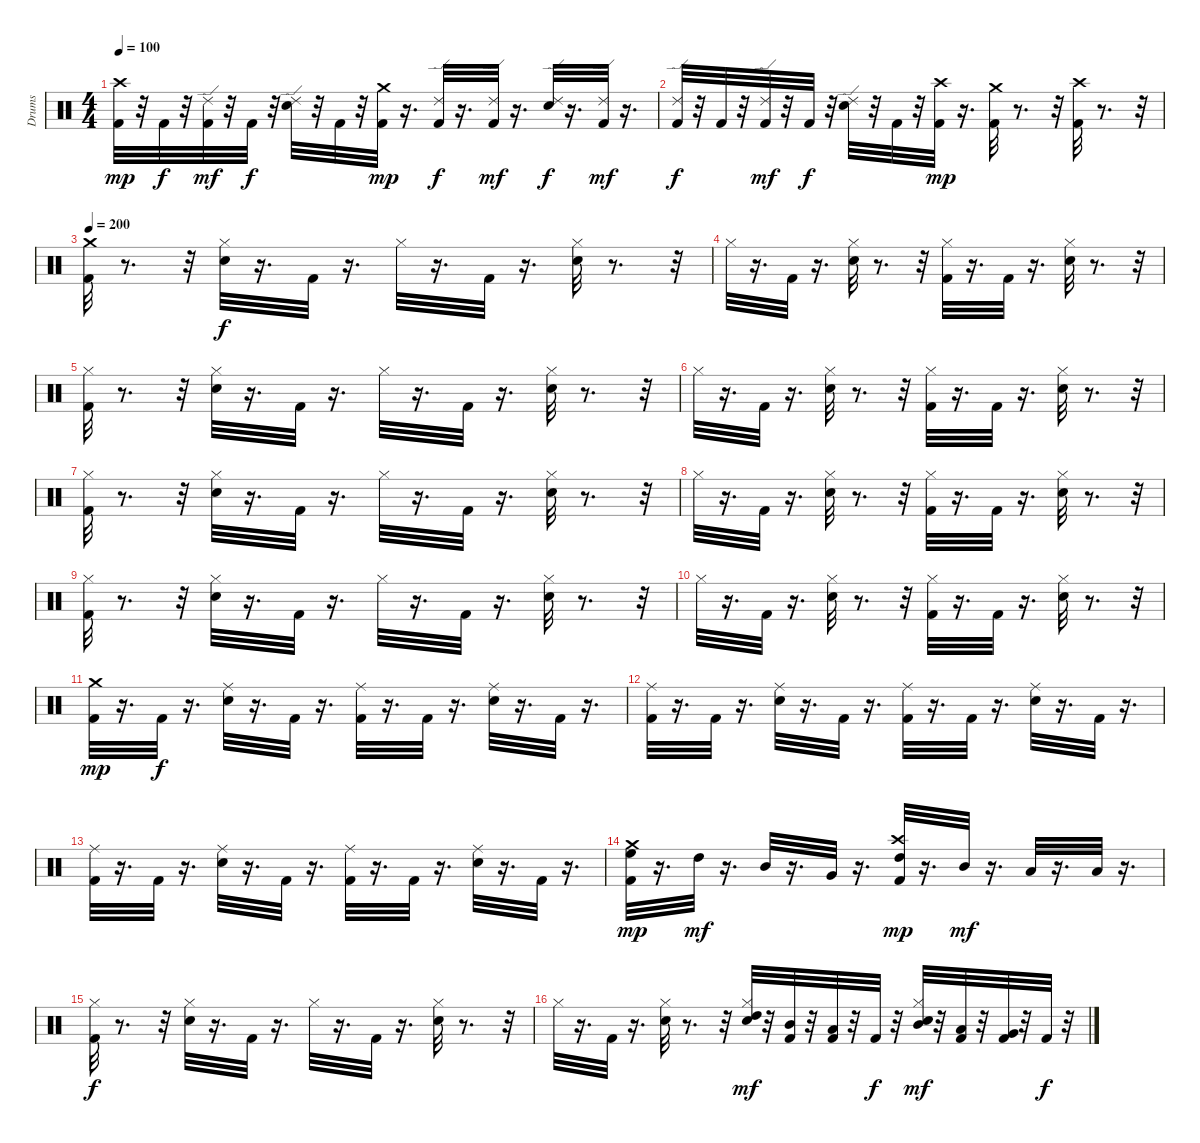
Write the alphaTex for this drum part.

\track ("Drums" "Drums") {instrument percussion}
\staff {score}
\articulation defaults
\ts (4 4)
\tempo 100
\clef neutral
\ks c
("Kick (hit) 2" "Crash high (hit)").32{dy mp} r.32 "Kick (hit) 2".32{dy f} r.32 ("Kick (hit) 2" "Ride (edge) 2").32{dy mf} r.32 "Kick (hit) 2".32{dy f} r.32 ("Snare (hit) 2" "Ride (edge) 2").32 r.32 "Kick (hit) 2".32 r.32 ("Kick (hit) 2" "Crash medium (hit)").32{dy mp} r.16{d} ("Kick (hit) 2" "Ride (edge) 2").32{dy f} r.16{d} ("Kick (hit) 2" "Ride (edge) 2").32{dy mf} r.16{d} ("Snare (hit) 2" "Ride (edge) 2").32{dy f} r.16{d} ("Kick (hit) 2" "Ride (edge) 2").32{dy mf} r.16{d} |
("Kick (hit) 2" "Ride (edge) 2").32{dy f} r.32 "Kick (hit) 2".32 r.32 ("Kick (hit) 2" "Ride (edge) 2").32{dy mf} r.32 "Kick (hit) 2".32{dy f} r.32 ("Snare (hit) 2" "Ride (edge) 2").32 r.32 "Kick (hit) 2".32 r.32 ("Kick (hit) 2" "Crash high (hit)").32{dy mp} r.16{d} ("Kick (hit) 2" "Crash medium (hit)").32 r.8{d} r.32 ("Kick (hit) 2" "Crash high (hit)").32 r.8{d} r.32 |
\tempo 200
("Kick (hit) 2" "Crash medium (hit)").32 r.8{d} r.32 ("Snare (hit) 2" "Hi-Hat (closed)").32{dy f} r.16{d} "Kick (hit) 2".32 r.16{d} "Hi-Hat (closed)".32 r.16{d} "Kick (hit) 2".32 r.16{d} ("Snare (hit) 2" "Hi-Hat (closed)").32 r.8{d} r.32 |
"Hi-Hat (closed)".32 r.16{d} "Kick (hit) 2".32 r.16{d} ("Snare (hit) 2" "Hi-Hat (closed)").32 r.8{d} r.32 ("Kick (hit) 2" "Hi-Hat (closed)").32 r.16{d} "Kick (hit) 2".32 r.16{d} ("Snare (hit) 2" "Hi-Hat (closed)").32 r.8{d} r.32 |
("Kick (hit) 2" "Hi-Hat (closed)").32 r.8{d} r.32 ("Snare (hit) 2" "Hi-Hat (closed)").32 r.16{d} "Kick (hit) 2".32 r.16{d} "Hi-Hat (closed)".32 r.16{d} "Kick (hit) 2".32 r.16{d} ("Snare (hit) 2" "Hi-Hat (closed)").32 r.8{d} r.32 |
"Hi-Hat (closed)".32 r.16{d} "Kick (hit) 2".32 r.16{d} ("Snare (hit) 2" "Hi-Hat (closed)").32 r.8{d} r.32 ("Kick (hit) 2" "Hi-Hat (closed)").32 r.16{d} "Kick (hit) 2".32 r.16{d} ("Snare (hit) 2" "Hi-Hat (closed)").32 r.8{d} r.32 |
("Kick (hit) 2" "Hi-Hat (closed)").32 r.8{d} r.32 ("Snare (hit) 2" "Hi-Hat (closed)").32 r.16{d} "Kick (hit) 2".32 r.16{d} "Hi-Hat (closed)".32 r.16{d} "Kick (hit) 2".32 r.16{d} ("Snare (hit) 2" "Hi-Hat (closed)").32 r.8{d} r.32 |
"Hi-Hat (closed)".32 r.16{d} "Kick (hit) 2".32 r.16{d} ("Snare (hit) 2" "Hi-Hat (closed)").32 r.8{d} r.32 ("Kick (hit) 2" "Hi-Hat (closed)").32 r.16{d} "Kick (hit) 2".32 r.16{d} ("Snare (hit) 2" "Hi-Hat (closed)").32 r.8{d} r.32 |
("Kick (hit) 2" "Hi-Hat (closed)").32 r.8{d} r.32 ("Snare (hit) 2" "Hi-Hat (closed)").32 r.16{d} "Kick (hit) 2".32 r.16{d} "Hi-Hat (closed)".32 r.16{d} "Kick (hit) 2".32 r.16{d} ("Snare (hit) 2" "Hi-Hat (closed)").32 r.8{d} r.32 |
"Hi-Hat (closed)".32 r.16{d} "Kick (hit) 2".32 r.16{d} ("Snare (hit) 2" "Hi-Hat (closed)").32 r.8{d} r.32 ("Kick (hit) 2" "Hi-Hat (closed)").32 r.16{d} "Kick (hit) 2".32 r.16{d} ("Snare (hit) 2" "Hi-Hat (closed)").32 r.8{d} r.32 |
("Kick (hit) 2" "Crash medium (hit)").32{dy mp} r.16{d} "Kick (hit) 2".32{dy f} r.16{d} ("Snare (hit) 2" "Ride (middle)").32 r.16{d} "Kick (hit) 2".32 r.16{d} ("Kick (hit) 2" "Ride (middle)").32 r.16{d} "Kick (hit) 2".32 r.16{d} ("Snare (hit) 2" "Ride (middle)").32 r.16{d} "Kick (hit) 2".32 r.16{d} |
("Kick (hit) 2" "Ride (middle)").32 r.16{d} "Kick (hit) 2".32 r.16{d} ("Snare (hit) 2" "Ride (middle)").32 r.16{d} "Kick (hit) 2".32 r.16{d} ("Kick (hit) 2" "Ride (middle)").32 r.16{d} "Kick (hit) 2".32 r.16{d} ("Snare (hit) 2" "Ride (middle)").32 r.16{d} "Kick (hit) 2".32 r.16{d} |
("Kick (hit) 2" "Ride (middle)").32 r.16{d} "Kick (hit) 2".32 r.16{d} ("Snare (hit) 2" "Ride (middle)").32 r.16{d} "Kick (hit) 2".32 r.16{d} ("Kick (hit) 2" "Ride (middle)").32 r.16{d} "Kick (hit) 2".32 r.16{d} ("Snare (hit) 2" "Ride (middle)").32 r.16{d} "Kick (hit) 2".32 r.16{d} |
("Kick (hit) 2" "High Floor Tom (hit)" "Crash medium (hit)").32{dy mp} r.16{d} "High Tom (hit)".32{dy mf} r.16{d} "Mid Tom (hit)".32 r.16{d} "Very Low Tom (hit)".32 r.16{d} ("Kick (hit) 2" "High Tom (hit)" "Crash high (hit)").32{dy mp} r.16{d} "Mid Tom (hit)".32{dy mf} r.16{d} "Low Tom (hit)".32 r.16{d} "Low Floor Tom (hit)".32 r.16{d} |
("Kick (hit) 2" "Hi-Hat (closed)").32{dy f} r.8{d} r.32 ("Snare (hit) 2" "Hi-Hat (closed)").32 r.16{d} "Kick (hit) 2".32 r.16{d} "Hi-Hat (closed)".32 r.16{d} "Kick (hit) 2".32 r.16{d} ("Snare (hit) 2" "Hi-Hat (closed)").32 r.8{d} r.32 |
"Hi-Hat (closed)".32 r.16{d} "Kick (hit) 2".32 r.16{d} ("Snare (hit) 2" "Hi-Hat (closed)").32 r.8{d} r.32 ("Snare (hit) 2" "Hi-Hat (closed)" "High Tom (hit)").32{dy mf} r.32 ("Kick (hit) 2" "Mid Tom (hit)").32 r.32 ("Kick (hit) 2" "Low Tom (hit)").32 r.32 "Kick (hit) 2".32{dy f} r.32 ("Snare (hit) 2" "Hi-Hat (closed)" "Mid Tom (hit)").32{dy mf} r.32 ("Kick (hit) 2" "Low Tom (hit)").32 r.32 ("Kick (hit) 2" "Very Low Tom (hit)").32 r.32 "Kick (hit) 2".32{dy f} r.32
